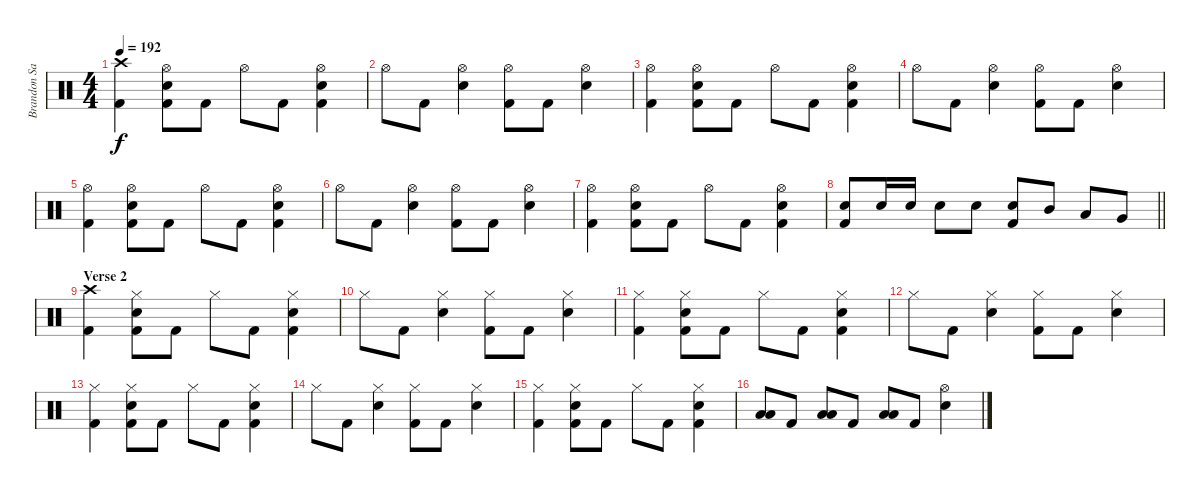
\track ("Brandon Saller" "Brandon Sa") {instrument percussion}
\staff {score}
\articulation defaults
\ts (4 4)
\tempo 192
\clef neutral
\ks aminor
("Kick (hit) 2" "Crash high (hit)").4{dy f} ("Kick (hit) 2" "Snare (hit) 2" "Hi-Hat (open)").8 "Kick (hit) 2".8 "Hi-Hat (open)".8 "Kick (hit) 2".8 ("Kick (hit) 2" "Snare (hit) 2" "Hi-Hat (open)").4 |
"Hi-Hat (open)".8 "Kick (hit) 2".8 ("Snare (hit) 2" "Hi-Hat (open)").4 ("Kick (hit) 2" "Hi-Hat (open)").8 "Kick (hit) 2".8 ("Snare (hit) 2" "Hi-Hat (open)").4 |
("Kick (hit) 2" "Hi-Hat (open)").4 ("Kick (hit) 2" "Snare (hit) 2" "Hi-Hat (open)").8 "Kick (hit) 2".8 "Hi-Hat (open)".8 "Kick (hit) 2".8 ("Kick (hit) 2" "Snare (hit) 2" "Hi-Hat (open)").4 |
"Hi-Hat (open)".8 "Kick (hit) 2".8 ("Snare (hit) 2" "Hi-Hat (open)").4 ("Kick (hit) 2" "Hi-Hat (open)").8 "Kick (hit) 2".8 ("Snare (hit) 2" "Hi-Hat (open)").4 |
("Kick (hit) 2" "Hi-Hat (open)").4 ("Kick (hit) 2" "Snare (hit) 2" "Hi-Hat (open)").8 "Kick (hit) 2".8 "Hi-Hat (open)".8 "Kick (hit) 2".8 ("Kick (hit) 2" "Snare (hit) 2" "Hi-Hat (open)").4 |
"Hi-Hat (open)".8 "Kick (hit) 2".8 ("Snare (hit) 2" "Hi-Hat (open)").4 ("Kick (hit) 2" "Hi-Hat (open)").8 "Kick (hit) 2".8 ("Snare (hit) 2" "Hi-Hat (open)").4 |
("Kick (hit) 2" "Hi-Hat (open)").4 ("Kick (hit) 2" "Snare (hit) 2" "Hi-Hat (open)").8 "Kick (hit) 2".8 "Hi-Hat (open)".8 "Kick (hit) 2".8 ("Kick (hit) 2" "Snare (hit) 2" "Hi-Hat (open)").4 |
\barLineRight lightlight
("Kick (hit) 2" "Snare (hit) 2").8 "Snare (hit) 2".16 "Snare (hit) 2".16 "Snare (hit) 2".8 "Snare (hit) 2".8 ("Kick (hit) 2" "Snare (hit) 2").8 "Mid Tom (hit)".8 "Low Tom (hit)".8 "Very Low Tom (hit)".8 |
\section ("" "Verse 2")
("Kick (hit) 2" "Crash high (hit)").4 ("Kick (hit) 2" "Snare (hit) 2" "Hi-Hat (closed)").8 "Kick (hit) 2".8 "Hi-Hat (closed)".8 "Kick (hit) 2".8 ("Kick (hit) 2" "Snare (hit) 2" "Hi-Hat (closed)").4 |
"Hi-Hat (closed)".8 "Kick (hit) 2".8 ("Snare (hit) 2" "Hi-Hat (closed)").4 ("Kick (hit) 2" "Hi-Hat (closed)").8 "Kick (hit) 2".8 ("Snare (hit) 2" "Hi-Hat (closed)").4 |
("Kick (hit) 2" "Hi-Hat (closed)").4 ("Kick (hit) 2" "Snare (hit) 2" "Hi-Hat (closed)").8 "Kick (hit) 2".8 "Hi-Hat (closed)".8 "Kick (hit) 2".8 ("Kick (hit) 2" "Snare (hit) 2" "Hi-Hat (closed)").4 |
"Hi-Hat (closed)".8 "Kick (hit) 2".8 ("Snare (hit) 2" "Hi-Hat (closed)").4 ("Kick (hit) 2" "Hi-Hat (closed)").8 "Kick (hit) 2".8 ("Snare (hit) 2" "Hi-Hat (closed)").4 |
("Kick (hit) 2" "Hi-Hat (closed)").4 ("Kick (hit) 2" "Snare (hit) 2" "Hi-Hat (closed)").8 "Kick (hit) 2".8 "Hi-Hat (closed)".8 "Kick (hit) 2".8 ("Kick (hit) 2" "Snare (hit) 2" "Hi-Hat (closed)").4 |
"Hi-Hat (closed)".8 "Kick (hit) 2".8 ("Snare (hit) 2" "Hi-Hat (closed)").4 ("Kick (hit) 2" "Hi-Hat (closed)").8 "Kick (hit) 2".8 ("Snare (hit) 2" "Hi-Hat (closed)").4 |
("Kick (hit) 2" "Hi-Hat (closed)").4 ("Kick (hit) 2" "Snare (hit) 2" "Hi-Hat (closed)").8 "Kick (hit) 2".8 "Hi-Hat (closed)".8 "Kick (hit) 2".8 ("Kick (hit) 2" "Snare (hit) 2" "Hi-Hat (closed)").4 |
("Low Tom (hit)" "Low Floor Tom (hit)").8 "Kick (hit) 2".8 ("Low Floor Tom (hit)" "Low Floor Tom (hit)").8 "Kick (hit) 2".8 ("Low Floor Tom (hit)" "Low Floor Tom (hit)").8 "Kick (hit) 2".8 ("Hi-Hat (open)" "Snare (hit) 2").4
